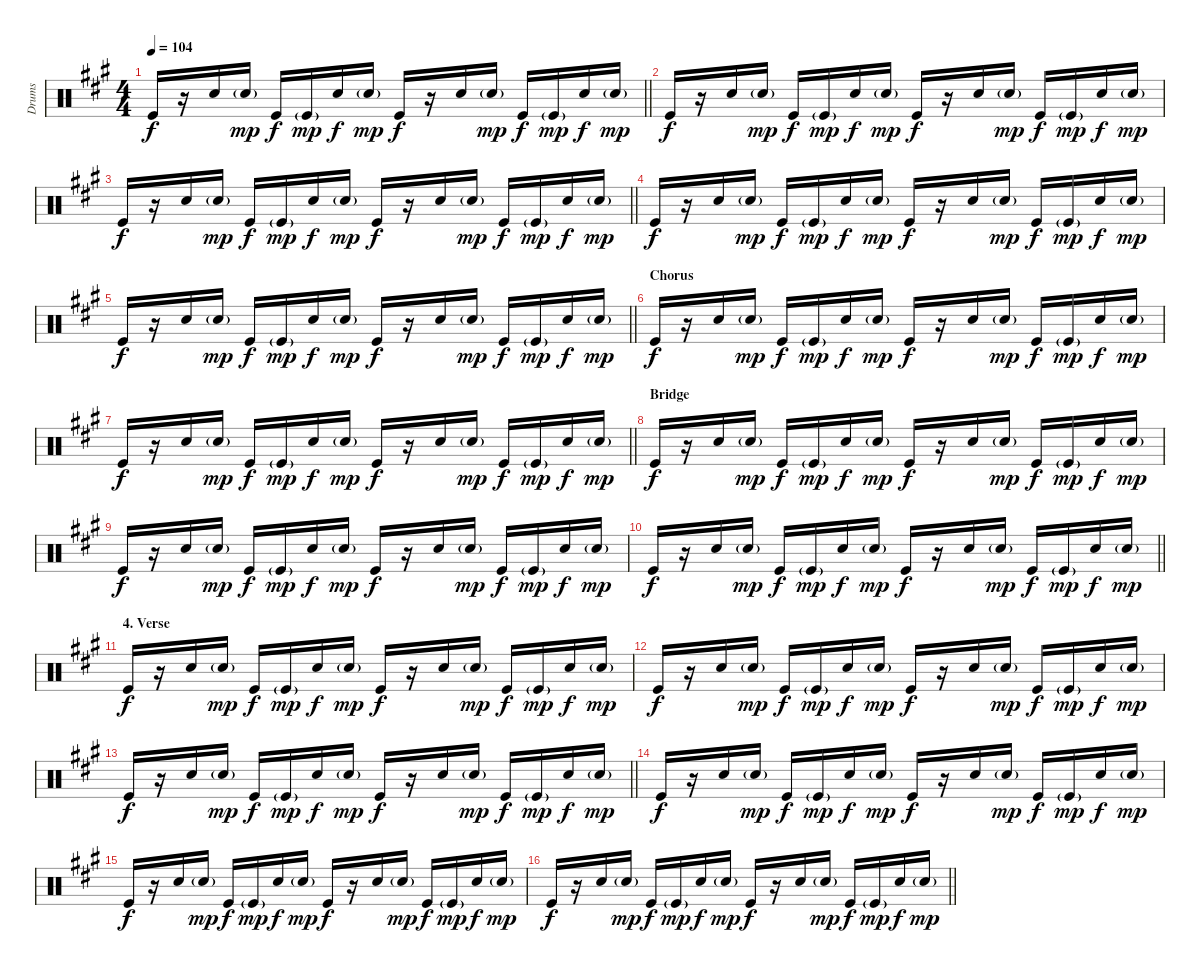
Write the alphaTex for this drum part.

\track ("Drums" "Drums") {instrument percussion}
\staff {score}
\articulation defaults
\ts (4 4)
\tempo 104
\clef neutral
\barLineRight lightlight
\ks a "Kick (hit)".16{dy f}
r.16 "Electric Snare (hit)".16 "Electric Snare (hit)"{g}.16{dy mp} "Kick (hit)".16{dy f} "Kick (hit)"{g}.16{dy mp} "Electric Snare (hit)".16{dy f} "Electric Snare (hit)"{g}.16{dy mp} "Kick (hit)".16{dy f} r.16 "Electric Snare (hit)".16 "Electric Snare (hit)"{g}.16{dy mp} "Kick (hit)".16{dy f} "Kick (hit)"{g}.16{dy mp} "Electric Snare (hit)".16{dy f} "Electric Snare (hit)"{g}.16{dy mp} |
"Kick (hit)".16{dy f} r.16 "Electric Snare (hit)".16 "Electric Snare (hit)"{g}.16{dy mp} "Kick (hit)".16{dy f} "Kick (hit)"{g}.16{dy mp} "Electric Snare (hit)".16{dy f} "Electric Snare (hit)"{g}.16{dy mp} "Kick (hit)".16{dy f} r.16 "Electric Snare (hit)".16 "Electric Snare (hit)"{g}.16{dy mp} "Kick (hit)".16{dy f} "Kick (hit)"{g}.16{dy mp} "Electric Snare (hit)".16{dy f} "Electric Snare (hit)"{g}.16{dy mp} |
\barLineRight lightlight "Kick (hit)".16{dy f}
r.16 "Electric Snare (hit)".16 "Electric Snare (hit)"{g}.16{dy mp} "Kick (hit)".16{dy f} "Kick (hit)"{g}.16{dy mp} "Electric Snare (hit)".16{dy f} "Electric Snare (hit)"{g}.16{dy mp} "Kick (hit)".16{dy f} r.16 "Electric Snare (hit)".16 "Electric Snare (hit)"{g}.16{dy mp} "Kick (hit)".16{dy f} "Kick (hit)"{g}.16{dy mp} "Electric Snare (hit)".16{dy f} "Electric Snare (hit)"{g}.16{dy mp} |
"Kick (hit)".16{dy f} r.16 "Electric Snare (hit)".16 "Electric Snare (hit)"{g}.16{dy mp} "Kick (hit)".16{dy f} "Kick (hit)"{g}.16{dy mp} "Electric Snare (hit)".16{dy f} "Electric Snare (hit)"{g}.16{dy mp} "Kick (hit)".16{dy f} r.16 "Electric Snare (hit)".16 "Electric Snare (hit)"{g}.16{dy mp} "Kick (hit)".16{dy f} "Kick (hit)"{g}.16{dy mp} "Electric Snare (hit)".16{dy f} "Electric Snare (hit)"{g}.16{dy mp} |
\barLineRight lightlight "Kick (hit)".16{dy f}
r.16 "Electric Snare (hit)".16 "Electric Snare (hit)"{g}.16{dy mp} "Kick (hit)".16{dy f} "Kick (hit)"{g}.16{dy mp} "Electric Snare (hit)".16{dy f} "Electric Snare (hit)"{g}.16{dy mp} "Kick (hit)".16{dy f} r.16 "Electric Snare (hit)".16 "Electric Snare (hit)"{g}.16{dy mp} "Kick (hit)".16{dy f} "Kick (hit)"{g}.16{dy mp} "Electric Snare (hit)".16{dy f} "Electric Snare (hit)"{g}.16{dy mp} |
\section ("" "Chorus")
"Kick (hit)".16{dy f} r.16 "Electric Snare (hit)".16 "Electric Snare (hit)"{g}.16{dy mp} "Kick (hit)".16{dy f} "Kick (hit)"{g}.16{dy mp} "Electric Snare (hit)".16{dy f} "Electric Snare (hit)"{g}.16{dy mp} "Kick (hit)".16{dy f} r.16 "Electric Snare (hit)".16 "Electric Snare (hit)"{g}.16{dy mp} "Kick (hit)".16{dy f} "Kick (hit)"{g}.16{dy mp} "Electric Snare (hit)".16{dy f} "Electric Snare (hit)"{g}.16{dy mp} |
\barLineRight lightlight "Kick (hit)".16{dy f}
r.16 "Electric Snare (hit)".16 "Electric Snare (hit)"{g}.16{dy mp} "Kick (hit)".16{dy f} "Kick (hit)"{g}.16{dy mp} "Electric Snare (hit)".16{dy f} "Electric Snare (hit)"{g}.16{dy mp} "Kick (hit)".16{dy f} r.16 "Electric Snare (hit)".16 "Electric Snare (hit)"{g}.16{dy mp} "Kick (hit)".16{dy f} "Kick (hit)"{g}.16{dy mp} "Electric Snare (hit)".16{dy f} "Electric Snare (hit)"{g}.16{dy mp} |
\section ("" "Bridge")
"Kick (hit)".16{dy f} r.16 "Electric Snare (hit)".16 "Electric Snare (hit)"{g}.16{dy mp} "Kick (hit)".16{dy f} "Kick (hit)"{g}.16{dy mp} "Electric Snare (hit)".16{dy f} "Electric Snare (hit)"{g}.16{dy mp} "Kick (hit)".16{dy f} r.16 "Electric Snare (hit)".16 "Electric Snare (hit)"{g}.16{dy mp} "Kick (hit)".16{dy f} "Kick (hit)"{g}.16{dy mp} "Electric Snare (hit)".16{dy f} "Electric Snare (hit)"{g}.16{dy mp} |
"Kick (hit)".16{dy f} r.16 "Electric Snare (hit)".16 "Electric Snare (hit)"{g}.16{dy mp} "Kick (hit)".16{dy f} "Kick (hit)"{g}.16{dy mp} "Electric Snare (hit)".16{dy f} "Electric Snare (hit)"{g}.16{dy mp} "Kick (hit)".16{dy f} r.16 "Electric Snare (hit)".16 "Electric Snare (hit)"{g}.16{dy mp} "Kick (hit)".16{dy f} "Kick (hit)"{g}.16{dy mp} "Electric Snare (hit)".16{dy f} "Electric Snare (hit)"{g}.16{dy mp} |
\barLineRight lightlight "Kick (hit)".16{dy f}
r.16 "Electric Snare (hit)".16 "Electric Snare (hit)"{g}.16{dy mp} "Kick (hit)".16{dy f} "Kick (hit)"{g}.16{dy mp} "Electric Snare (hit)".16{dy f} "Electric Snare (hit)"{g}.16{dy mp} "Kick (hit)".16{dy f} r.16 "Electric Snare (hit)".16 "Electric Snare (hit)"{g}.16{dy mp} "Kick (hit)".16{dy f} "Kick (hit)"{g}.16{dy mp} "Electric Snare (hit)".16{dy f} "Electric Snare (hit)"{g}.16{dy mp} |
\section ("" "4. Verse")
"Kick (hit)".16{dy f} r.16 "Electric Snare (hit)".16 "Electric Snare (hit)"{g}.16{dy mp} "Kick (hit)".16{dy f} "Kick (hit)"{g}.16{dy mp} "Electric Snare (hit)".16{dy f} "Electric Snare (hit)"{g}.16{dy mp} "Kick (hit)".16{dy f} r.16 "Electric Snare (hit)".16 "Electric Snare (hit)"{g}.16{dy mp} "Kick (hit)".16{dy f} "Kick (hit)"{g}.16{dy mp} "Electric Snare (hit)".16{dy f} "Electric Snare (hit)"{g}.16{dy mp} |
"Kick (hit)".16{dy f} r.16 "Electric Snare (hit)".16 "Electric Snare (hit)"{g}.16{dy mp} "Kick (hit)".16{dy f} "Kick (hit)"{g}.16{dy mp} "Electric Snare (hit)".16{dy f} "Electric Snare (hit)"{g}.16{dy mp} "Kick (hit)".16{dy f} r.16 "Electric Snare (hit)".16 "Electric Snare (hit)"{g}.16{dy mp} "Kick (hit)".16{dy f} "Kick (hit)"{g}.16{dy mp} "Electric Snare (hit)".16{dy f} "Electric Snare (hit)"{g}.16{dy mp} |
\barLineRight lightlight "Kick (hit)".16{dy f}
r.16 "Electric Snare (hit)".16 "Electric Snare (hit)"{g}.16{dy mp} "Kick (hit)".16{dy f} "Kick (hit)"{g}.16{dy mp} "Electric Snare (hit)".16{dy f} "Electric Snare (hit)"{g}.16{dy mp} "Kick (hit)".16{dy f} r.16 "Electric Snare (hit)".16 "Electric Snare (hit)"{g}.16{dy mp} "Kick (hit)".16{dy f} "Kick (hit)"{g}.16{dy mp} "Electric Snare (hit)".16{dy f} "Electric Snare (hit)"{g}.16{dy mp} |
"Kick (hit)".16{dy f} r.16 "Electric Snare (hit)".16 "Electric Snare (hit)"{g}.16{dy mp} "Kick (hit)".16{dy f} "Kick (hit)"{g}.16{dy mp} "Electric Snare (hit)".16{dy f} "Electric Snare (hit)"{g}.16{dy mp} "Kick (hit)".16{dy f} r.16 "Electric Snare (hit)".16 "Electric Snare (hit)"{g}.16{dy mp} "Kick (hit)".16{dy f} "Kick (hit)"{g}.16{dy mp} "Electric Snare (hit)".16{dy f} "Electric Snare (hit)"{g}.16{dy mp} |
"Kick (hit)".16{dy f} r.16 "Electric Snare (hit)".16 "Electric Snare (hit)"{g}.16{dy mp} "Kick (hit)".16{dy f} "Kick (hit)"{g}.16{dy mp} "Electric Snare (hit)".16{dy f} "Electric Snare (hit)"{g}.16{dy mp} "Kick (hit)".16{dy f} r.16 "Electric Snare (hit)".16 "Electric Snare (hit)"{g}.16{dy mp} "Kick (hit)".16{dy f} "Kick (hit)"{g}.16{dy mp} "Electric Snare (hit)".16{dy f} "Electric Snare (hit)"{g}.16{dy mp} |
\barLineRight lightlight "Kick (hit)".16{dy f}
r.16 "Electric Snare (hit)".16 "Electric Snare (hit)"{g}.16{dy mp} "Kick (hit)".16{dy f} "Kick (hit)"{g}.16{dy mp} "Electric Snare (hit)".16{dy f} "Electric Snare (hit)"{g}.16{dy mp} "Kick (hit)".16{dy f} r.16 "Electric Snare (hit)".16 "Electric Snare (hit)"{g}.16{dy mp} "Kick (hit)".16{dy f} "Kick (hit)"{g}.16{dy mp} "Electric Snare (hit)".16{dy f} "Electric Snare (hit)"{g}.16{dy mp}
